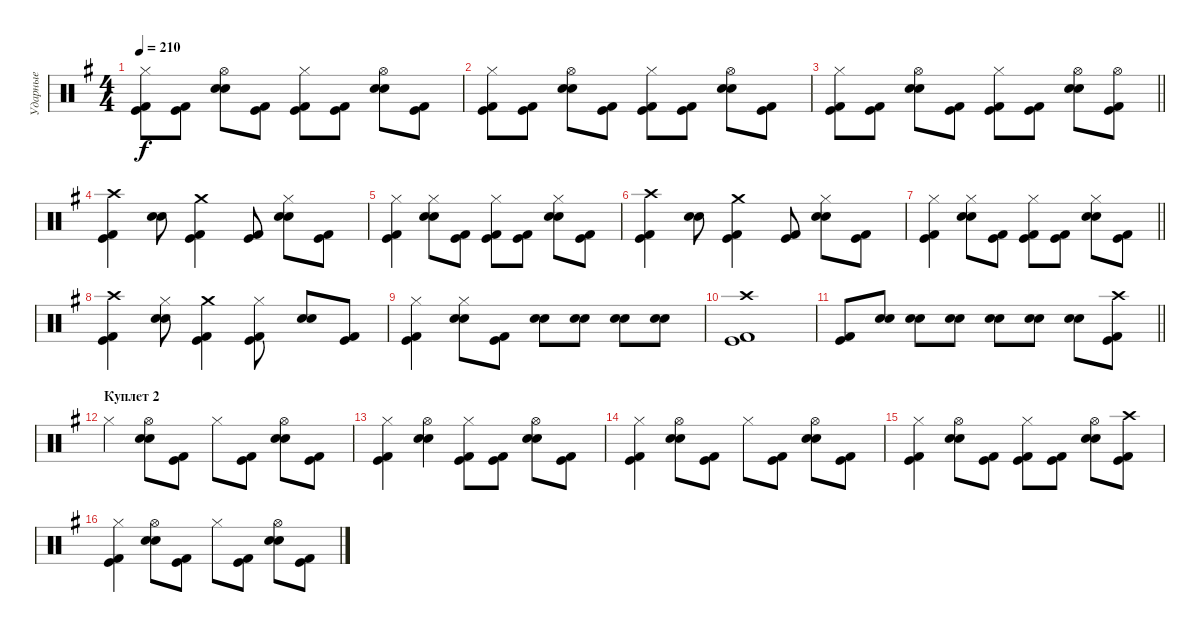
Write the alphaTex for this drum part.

\track ("Ударные" "Ударные") {instrument percussion}
\staff {score}
\articulation defaults
\ts (4 4)
\tempo 210
\clef neutral
\ks g
("Hi-Hat (closed)" "Kick (hit) 2" "Kick (hit)").8{dy f} ("Kick (hit) 2" "Kick (hit)").8 ("Hi-Hat (open)" "Electric Snare (hit)" "Snare (hit) 2").8 ("Kick (hit) 2" "Kick (hit)").8 ("Hi-Hat (closed)" "Kick (hit) 2" "Kick (hit)").8 ("Kick (hit) 2" "Kick (hit)").8 ("Hi-Hat (open)" "Electric Snare (hit)" "Snare (hit) 2").8 ("Kick (hit) 2" "Kick (hit)").8 |
("Hi-Hat (closed)" "Kick (hit) 2" "Kick (hit)").8 ("Kick (hit) 2" "Kick (hit)").8 ("Hi-Hat (open)" "Electric Snare (hit)" "Snare (hit) 2").8 ("Kick (hit) 2" "Kick (hit)").8 ("Hi-Hat (closed)" "Kick (hit) 2" "Kick (hit)").8 ("Kick (hit) 2" "Kick (hit)").8 ("Hi-Hat (open)" "Electric Snare (hit)" "Snare (hit) 2").8 ("Kick (hit) 2" "Kick (hit)").8 |
\barLineRight lightlight
("Hi-Hat (closed)" "Kick (hit) 2" "Kick (hit)").8 ("Kick (hit) 2" "Kick (hit)").8 ("Hi-Hat (open)" "Electric Snare (hit)" "Snare (hit) 2").8 ("Kick (hit) 2" "Kick (hit)").8 ("Hi-Hat (closed)" "Kick (hit) 2" "Kick (hit)").8 ("Kick (hit) 2" "Kick (hit)").8 ("Hi-Hat (open)" "Electric Snare (hit)" "Snare (hit) 2").8 ("Hi-Hat (open)" "Kick (hit) 2" "Kick (hit)").8 |
\section ("" "")
("Crash high (hit)" "Kick (hit) 2" "Kick (hit)").4 ("Electric Snare (hit)" "Snare (hit) 2").8 ("Crash medium (hit)" "Kick (hit) 2" "Kick (hit)").4 ("Kick (hit) 2" "Kick (hit)").8 ("Hi-Hat (closed)" "Electric Snare (hit)" "Snare (hit) 2").8 ("Kick (hit) 2" "Kick (hit)").8 |
("Hi-Hat (closed)" "Kick (hit) 2" "Kick (hit)").4 ("Hi-Hat (closed)" "Electric Snare (hit)" "Snare (hit) 2").8 ("Kick (hit) 2" "Kick (hit)").8 ("Hi-Hat (closed)" "Kick (hit) 2" "Kick (hit)").8 ("Kick (hit) 2" "Kick (hit)").8 ("Hi-Hat (closed)" "Electric Snare (hit)" "Snare (hit) 2").8 ("Kick (hit) 2" "Kick (hit)").8 |
("Crash high (hit)" "Kick (hit) 2" "Kick (hit)").4 ("Electric Snare (hit)" "Snare (hit) 2").8 ("Crash medium (hit)" "Kick (hit) 2" "Kick (hit)").4 ("Kick (hit) 2" "Kick (hit)").8 ("Hi-Hat (closed)" "Electric Snare (hit)" "Snare (hit) 2").8 ("Kick (hit) 2" "Kick (hit)").8 |
\barLineRight lightlight
("Hi-Hat (closed)" "Kick (hit) 2" "Kick (hit)").4 ("Hi-Hat (closed)" "Electric Snare (hit)" "Snare (hit) 2").8 ("Kick (hit) 2" "Kick (hit)").8 ("Hi-Hat (closed)" "Kick (hit) 2" "Kick (hit)").8 ("Kick (hit) 2" "Kick (hit)").8 ("Hi-Hat (closed)" "Electric Snare (hit)" "Snare (hit) 2").8 ("Kick (hit) 2" "Kick (hit)").8 |
("Crash high (hit)" "Kick (hit) 2" "Kick (hit)").4 ("Hi-Hat (closed)" "Electric Snare (hit)" "Snare (hit) 2").8 ("Crash medium (hit)" "Kick (hit) 2" "Kick (hit)").4 ("Hi-Hat (closed)" "Kick (hit) 2" "Kick (hit)").8 ("Electric Snare (hit)" "Snare (hit) 2").8 ("Kick (hit) 2" "Kick (hit)").8 |
("Hi-Hat (closed)" "Kick (hit) 2" "Kick (hit)").4 ("Hi-Hat (closed)" "Electric Snare (hit)" "Snare (hit) 2").8 ("Kick (hit) 2" "Kick (hit)").8 ("Electric Snare (hit)" "Snare (hit) 2").8 ("Electric Snare (hit)" "Snare (hit) 2").8 ("Electric Snare (hit)" "Snare (hit) 2").8 ("Electric Snare (hit)" "Snare (hit) 2").8 |
("Crash high (hit)" "Kick (hit) 2" "Kick (hit)").1 |
\barLineRight lightlight
("Kick (hit) 2" "Kick (hit)").8 ("Electric Snare (hit)" "Snare (hit) 2").8 ("Electric Snare (hit)" "Snare (hit) 2").8 ("Electric Snare (hit)" "Snare (hit) 2").8 ("Electric Snare (hit)" "Snare (hit) 2").8 ("Electric Snare (hit)" "Snare (hit) 2").8 ("Electric Snare (hit)" "Snare (hit) 2").8 ("Crash high (hit)" "Kick (hit) 2" "Kick (hit)").8 |
\section ("" "Куплет 2")
"Hi-Hat (closed)".4 ("Hi-Hat (open)" "Electric Snare (hit)" "Snare (hit) 2").8 ("Kick (hit) 2" "Kick (hit)").8 "Hi-Hat (closed)".8 ("Kick (hit) 2" "Kick (hit)").8 ("Hi-Hat (open)" "Electric Snare (hit)" "Snare (hit) 2").8 ("Kick (hit) 2" "Kick (hit)").8 |
("Hi-Hat (closed)" "Kick (hit) 2" "Kick (hit)").4 ("Hi-Hat (open)" "Electric Snare (hit)" "Snare (hit) 2").4 ("Hi-Hat (closed)" "Kick (hit) 2" "Kick (hit)").8 ("Kick (hit) 2" "Kick (hit)").8 ("Hi-Hat (open)" "Electric Snare (hit)" "Snare (hit) 2").8 ("Kick (hit) 2" "Kick (hit)").8 |
("Hi-Hat (closed)" "Kick (hit) 2" "Kick (hit)").4 ("Hi-Hat (open)" "Electric Snare (hit)" "Snare (hit) 2").8 ("Kick (hit) 2" "Kick (hit)").8 "Hi-Hat (closed)".8 ("Kick (hit) 2" "Kick (hit)").8 ("Hi-Hat (open)" "Electric Snare (hit)" "Snare (hit) 2").8 ("Kick (hit) 2" "Kick (hit)").8 |
("Hi-Hat (closed)" "Kick (hit) 2" "Kick (hit)").4 ("Hi-Hat (open)" "Electric Snare (hit)" "Snare (hit) 2").8 ("Kick (hit) 2" "Kick (hit)").8 ("Hi-Hat (closed)" "Kick (hit) 2" "Kick (hit)").8 ("Kick (hit) 2" "Kick (hit)").8 ("Hi-Hat (open)" "Electric Snare (hit)" "Snare (hit) 2").8 ("Crash high (hit)" "Kick (hit) 2" "Kick (hit)").8 |
("Hi-Hat (closed)" "Kick (hit) 2" "Kick (hit)").4 ("Hi-Hat (open)" "Electric Snare (hit)" "Snare (hit) 2").8 ("Kick (hit) 2" "Kick (hit)").8 "Hi-Hat (closed)".8 ("Kick (hit) 2" "Kick (hit)").8 ("Hi-Hat (open)" "Electric Snare (hit)" "Snare (hit) 2").8 ("Kick (hit) 2" "Kick (hit)").8
